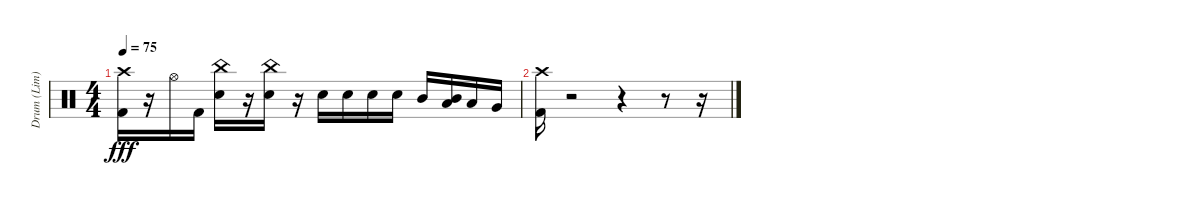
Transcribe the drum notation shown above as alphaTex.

\track ("Drum (Lim)" "Drum (Lim)") {instrument percussion}
\staff {score}
\articulation defaults
\ts (4 4)
\tempo 75
\clef neutral
\ks c
("Kick (hit) 2" "Crash high (hit)").16{dy fff} r.16 "Hi-Hat (open)".16 "Kick (hit) 2".16 ("Electric Snare (hit)" "China (hit)").16 r.16 ("Electric Snare (hit)" "China (hit)").16 r.16 "Electric Snare (hit)".16 "Electric Snare (hit)".16 "Electric Snare (hit)".16 "Electric Snare (hit)".16 "Mid Tom (hit)".16 ("Mid Tom (hit)" "Low Tom (hit)").16 "Low Tom (hit)".16 "Very Low Tom (hit)".16 |
("Crash high (hit)" "Kick (hit) 2").16 r.2 r.4 r.8 r.16
